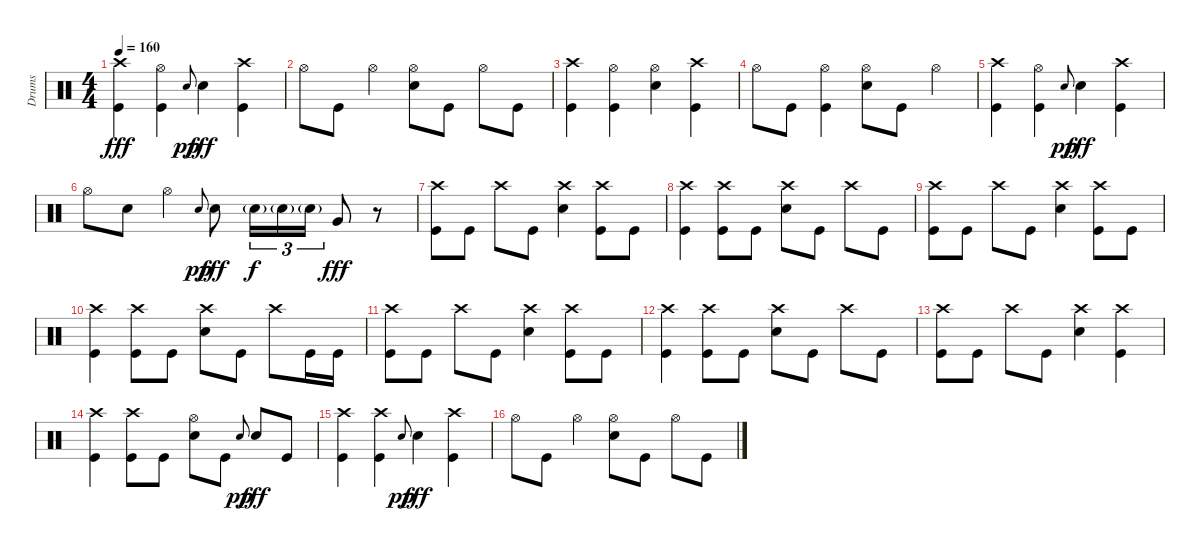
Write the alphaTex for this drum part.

\track ("Drums" "Drums") {instrument percussion}
\staff {score}
\articulation defaults
\ts (4 4)
\tempo 160
\clef neutral
\ks c
("Crash high (hit)" "Kick (hit)").4{dy fff} ("Hi-Hat (open)" "Kick (hit)").4 "Snare (hit) 2".8{gr onbeat dy pp} "Snare (hit) 2".4{dy fff} ("Crash high (hit)" "Kick (hit)").4 |
"Hi-Hat (open)".8 "Kick (hit)".8 "Hi-Hat (open)".4 ("Hi-Hat (open)" "Snare (hit) 2").8 "Kick (hit)".8 "Hi-Hat (open)".8 "Kick (hit)".8 |
("Crash high (hit)" "Kick (hit)").4 ("Hi-Hat (open)" "Kick (hit)").4 ("Hi-Hat (open)" "Snare (hit) 2").4 ("Crash high (hit)" "Kick (hit)").4 |
"Hi-Hat (open)".8 "Kick (hit)".8 ("Hi-Hat (open)" "Kick (hit)").4 ("Hi-Hat (open)" "Snare (hit) 2").8 "Kick (hit)".8 "Hi-Hat (open)".4 |
("Crash high (hit)" "Kick (hit)").4 ("Hi-Hat (open)" "Kick (hit)").4 "Snare (hit) 2".8{gr onbeat dy pp} "Snare (hit) 2".4{dy fff} ("Crash high (hit)" "Kick (hit)").4 |
"Hi-Hat (open)".8 "Snare (hit) 2".8 "Hi-Hat (open)".4 "Snare (hit) 2".8{gr onbeat dy pp} "Snare (hit) 2".8{dy fff} "Snare (hit) 2"{g}.16{tu (3 2) dy f} "Snare (hit) 2"{g}.16{tu (3 2)} "Snare (hit) 2"{g}.16{tu (3 2)} "Very Low Tom (hit)".8{dy fff} r.8 |
("Crash high (hit)" "Kick (hit)").8 "Kick (hit)".8 "Crash high (hit)".8 "Kick (hit)".8 ("Crash high (hit)" "Snare (hit) 2").4 ("Crash high (hit)" "Kick (hit)").8 "Kick (hit)".8 |
("Crash high (hit)" "Kick (hit)").4 ("Crash high (hit)" "Kick (hit)").8 "Kick (hit)".8 ("Crash high (hit)" "Snare (hit) 2").8 "Kick (hit)".8 "Crash high (hit)".8 "Kick (hit)".8 |
("Crash high (hit)" "Kick (hit)").8 "Kick (hit)".8 "Crash high (hit)".8 "Kick (hit)".8 ("Crash high (hit)" "Snare (hit) 2").4 ("Crash high (hit)" "Kick (hit)").8 "Kick (hit)".8 |
("Crash high (hit)" "Kick (hit)").4 ("Crash high (hit)" "Kick (hit)").8 "Kick (hit)".8 ("Crash high (hit)" "Snare (hit) 2").8 "Kick (hit)".8 "Crash high (hit)".8 "Kick (hit)".16 "Kick (hit)".16 |
("Crash high (hit)" "Kick (hit)").8 "Kick (hit)".8 "Crash high (hit)".8 "Kick (hit)".8 ("Crash high (hit)" "Snare (hit) 2").4 ("Crash high (hit)" "Kick (hit)").8 "Kick (hit)".8 |
("Crash high (hit)" "Kick (hit)").4 ("Crash high (hit)" "Kick (hit)").8 "Kick (hit)".8 ("Crash high (hit)" "Snare (hit) 2").8 "Kick (hit)".8 "Crash high (hit)".8 "Kick (hit)".8 |
("Crash high (hit)" "Kick (hit)").8 "Kick (hit)".8 "Crash high (hit)".8 "Kick (hit)".8 ("Crash high (hit)" "Snare (hit) 2").4 ("Crash high (hit)" "Kick (hit)").4 |
("Crash high (hit)" "Kick (hit)").4 ("Crash high (hit)" "Kick (hit)").8 "Kick (hit)".8 ("Hi-Hat (open)" "Snare (hit) 2").8 "Kick (hit)".8 "Snare (hit) 2".8{gr onbeat dy pp} "Snare (hit) 2".8{dy fff} "Kick (hit)".8 |
("Crash high (hit)" "Kick (hit)").4 ("Crash high (hit)" "Kick (hit)").4 "Snare (hit) 2".8{gr onbeat dy pp} "Snare (hit) 2".4{dy fff} ("Crash high (hit)" "Kick (hit)").4 |
"Hi-Hat (open)".8 "Kick (hit)".8 "Hi-Hat (open)".4 ("Hi-Hat (open)" "Snare (hit) 2").8 "Kick (hit)".8 "Hi-Hat (open)".8 "Kick (hit)".8
